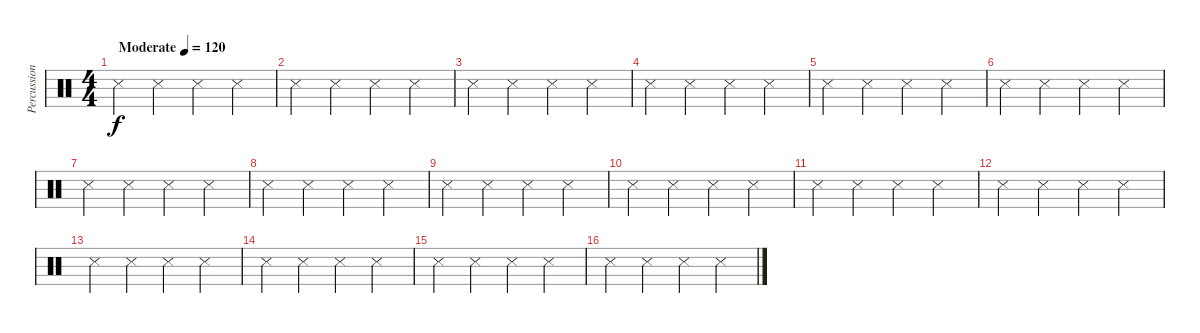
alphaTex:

\track ("Percussion" "Percussion") {instrument percussion}
\staff {score}
\articulation defaults
\ts (4 4)
\tempo (120 "Moderate")
\clef neutral
\ks c "Metronome (hit)".4{dy f} "Metronome (hit)".4 "Metronome (hit)".4 "Metronome (hit)".4
|
"Metronome (hit)".4 "Metronome (hit)".4 "Metronome (hit)".4 "Metronome (hit)".4 |
"Metronome (hit)".4 "Metronome (hit)".4 "Metronome (hit)".4 "Metronome (hit)".4 |
"Metronome (hit)".4 "Metronome (hit)".4 "Metronome (hit)".4 "Metronome (hit)".4 |
"Metronome (hit)".4 "Metronome (hit)".4 "Metronome (hit)".4 "Metronome (hit)".4 |
"Metronome (hit)".4 "Metronome (hit)".4 "Metronome (hit)".4 "Metronome (hit)".4 |
"Metronome (hit)".4 "Metronome (hit)".4 "Metronome (hit)".4 "Metronome (hit)".4 |
"Metronome (hit)".4 "Metronome (hit)".4 "Metronome (hit)".4 "Metronome (hit)".4 |
"Metronome (hit)".4 "Metronome (hit)".4 "Metronome (hit)".4 "Metronome (hit)".4 |
"Metronome (hit)".4 "Metronome (hit)".4 "Metronome (hit)".4 "Metronome (hit)".4 |
"Metronome (hit)".4 "Metronome (hit)".4 "Metronome (hit)".4 "Metronome (hit)".4 |
"Metronome (hit)".4 "Metronome (hit)".4 "Metronome (hit)".4 "Metronome (hit)".4 |
"Metronome (hit)".4 "Metronome (hit)".4 "Metronome (hit)".4 "Metronome (hit)".4 |
"Metronome (hit)".4 "Metronome (hit)".4 "Metronome (hit)".4 "Metronome (hit)".4 |
"Metronome (hit)".4 "Metronome (hit)".4 "Metronome (hit)".4 "Metronome (hit)".4 |
"Metronome (hit)".4 "Metronome (hit)".4 "Metronome (hit)".4 "Metronome (hit)".4
